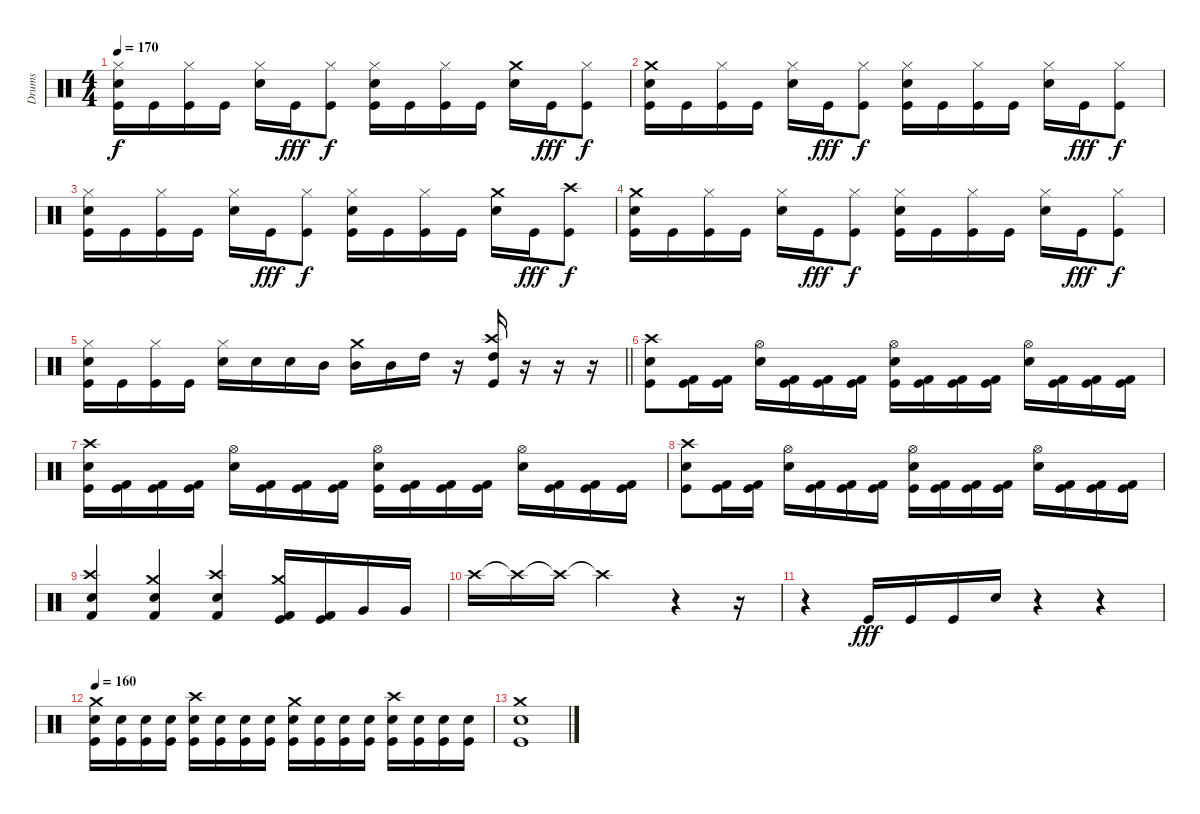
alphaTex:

\track ("Drums" "Drums") {instrument percussion}
\staff {score}
\articulation defaults
\ts (4 4)
\tempo 170
\clef neutral
\ks c
("Hi-Hat (closed)" "Snare (hit) 2" "Kick (hit)").16{dy f} "Kick (hit)".16 ("Hi-Hat (closed)" "Kick (hit)").16 "Kick (hit)".16 ("Hi-Hat (closed)" "Snare (hit) 2").16 "Kick (hit)".16{dy fff} ("Hi-Hat (closed)" "Kick (hit)").8{dy f} ("Hi-Hat (closed)" "Snare (hit) 2" "Kick (hit)").16 "Kick (hit)".16 ("Hi-Hat (closed)" "Kick (hit)").16 "Kick (hit)".16 ("Crash medium (hit)" "Snare (hit) 2").16 "Kick (hit)".16{dy fff} ("Hi-Hat (closed)" "Kick (hit)").8{dy f} |
("Crash medium (hit)" "Snare (hit) 2" "Kick (hit)").16 "Kick (hit)".16 ("Hi-Hat (closed)" "Kick (hit)").16 "Kick (hit)".16 ("Hi-Hat (closed)" "Snare (hit) 2").16 "Kick (hit)".16{dy fff} ("Hi-Hat (closed)" "Kick (hit)").8{dy f} ("Hi-Hat (closed)" "Snare (hit) 2" "Kick (hit)").16 "Kick (hit)".16 ("Hi-Hat (closed)" "Kick (hit)").16 "Kick (hit)".16 ("Hi-Hat (closed)" "Snare (hit) 2").16 "Kick (hit)".16{dy fff} ("Hi-Hat (closed)" "Kick (hit)").8{dy f} |
("Hi-Hat (closed)" "Snare (hit) 2" "Kick (hit)").16 "Kick (hit)".16 ("Hi-Hat (closed)" "Kick (hit)").16 "Kick (hit)".16 ("Hi-Hat (closed)" "Snare (hit) 2").16 "Kick (hit)".16{dy fff} ("Hi-Hat (closed)" "Kick (hit)").8{dy f} ("Hi-Hat (closed)" "Snare (hit) 2" "Kick (hit)").16 "Kick (hit)".16 ("Hi-Hat (closed)" "Kick (hit)").16 "Kick (hit)".16 ("Crash medium (hit)" "Snare (hit) 2").16 "Kick (hit)".16{dy fff} ("Crash high (hit)" "Kick (hit)").8{dy f} |
("Crash medium (hit)" "Snare (hit) 2" "Kick (hit)").16 "Kick (hit)".16 ("Hi-Hat (closed)" "Kick (hit)").16 "Kick (hit)".16 ("Hi-Hat (closed)" "Snare (hit) 2").16 "Kick (hit)".16{dy fff} ("Hi-Hat (closed)" "Kick (hit)").8{dy f} ("Hi-Hat (closed)" "Snare (hit) 2" "Kick (hit)").16 "Kick (hit)".16 ("Hi-Hat (closed)" "Kick (hit)").16 "Kick (hit)".16 ("Hi-Hat (closed)" "Snare (hit) 2").16 "Kick (hit)".16{dy fff} ("Hi-Hat (closed)" "Kick (hit)").8{dy f} |
\barLineRight lightlight
("Hi-Hat (closed)" "Snare (hit) 2" "Kick (hit)").16 "Kick (hit)".16 ("Hi-Hat (closed)" "Kick (hit)").16 "Kick (hit)".16 ("Hi-Hat (closed)" "Snare (hit) 2").16 "Snare (hit) 2".16 "Snare (hit) 2".16 "Mid Tom (hit)".16 ("Crash medium (hit)" "Mid Tom (hit)").16 "Mid Tom (hit)".16 "High Tom (hit)".16 r.16 ("Crash high (hit)" "High Tom (hit)" "Kick (hit)").16 r.16 r.16 r.16 |
("Crash high (hit)" "Snare (hit) 2" "Kick (hit)").8 ("Kick (hit) 2" "Kick (hit)").16 ("Kick (hit) 2" "Kick (hit)").16 ("Hi-Hat (open)" "Snare (hit) 2").16 ("Kick (hit) 2" "Kick (hit)").16 ("Kick (hit) 2" "Kick (hit)").16 ("Kick (hit) 2" "Kick (hit)").16 ("Hi-Hat (open)" "Snare (hit) 2" "Kick (hit)").16 ("Kick (hit) 2" "Kick (hit)").16 ("Kick (hit) 2" "Kick (hit)").16 ("Kick (hit) 2" "Kick (hit)").16 ("Hi-Hat (open)" "Snare (hit) 2").16 ("Kick (hit) 2" "Kick (hit)").16 ("Kick (hit) 2" "Kick (hit)").16 ("Kick (hit) 2" "Kick (hit)").16 |
("Crash high (hit)" "Snare (hit) 2" "Kick (hit)").16 ("Kick (hit) 2" "Kick (hit)").16 ("Kick (hit) 2" "Kick (hit)").16 ("Kick (hit) 2" "Kick (hit)").16 ("Hi-Hat (open)" "Snare (hit) 2").16 ("Kick (hit) 2" "Kick (hit)").16 ("Kick (hit) 2" "Kick (hit)").16 ("Kick (hit) 2" "Kick (hit)").16 ("Hi-Hat (open)" "Snare (hit) 2" "Kick (hit)").16 ("Kick (hit) 2" "Kick (hit)").16 ("Kick (hit) 2" "Kick (hit)").16 ("Kick (hit) 2" "Kick (hit)").16 ("Hi-Hat (open)" "Snare (hit) 2").16 ("Kick (hit) 2" "Kick (hit)").16 ("Kick (hit) 2" "Kick (hit)").16 ("Kick (hit) 2" "Kick (hit)").16 |
("Crash high (hit)" "Snare (hit) 2" "Kick (hit)").8 ("Kick (hit) 2" "Kick (hit)").16 ("Kick (hit) 2" "Kick (hit)").16 ("Hi-Hat (open)" "Snare (hit) 2").16 ("Kick (hit) 2" "Kick (hit)").16 ("Kick (hit) 2" "Kick (hit)").16 ("Kick (hit) 2" "Kick (hit)").16 ("Hi-Hat (open)" "Snare (hit) 2" "Kick (hit)").16 ("Kick (hit) 2" "Kick (hit)").16 ("Kick (hit) 2" "Kick (hit)").16 ("Kick (hit) 2" "Kick (hit)").16 ("Hi-Hat (open)" "Snare (hit) 2").16 ("Kick (hit) 2" "Kick (hit)").16 ("Kick (hit) 2" "Kick (hit)").16 ("Kick (hit) 2" "Kick (hit)").16 |
("Crash high (hit)" "Snare (hit) 2" "Kick (hit) 2").4 ("Crash medium (hit)" "Snare (hit) 2" "Kick (hit) 2").4 ("Crash high (hit)" "Snare (hit) 2" "Kick (hit) 2").4 ("Crash medium (hit)" "Kick (hit)" "Kick (hit) 2").16 ("Kick (hit)" "Kick (hit) 2").16 "Very Low Tom (hit)".16 "Very Low Tom (hit)".16 |
"Crash high (hit)".16 "Crash high (hit)"{t}.16 "Crash high (hit)"{t}.16 "Crash high (hit)"{t}.2 r.4 r.16 |
r.4 "Kick (hit)".16{dy fff} "Kick (hit)".16 "Kick (hit)".16 "Snare (hit) 2".16 r.4 r.4 |
\tempo 160
("Crash medium (hit)" "Snare (hit) 2" "Kick (hit)").16 ("Snare (hit) 2" "Kick (hit)").16 ("Snare (hit) 2" "Kick (hit)").16 ("Snare (hit) 2" "Kick (hit)").16 ("Crash high (hit)" "Snare (hit) 2" "Kick (hit)").16 ("Snare (hit) 2" "Kick (hit)").16 ("Snare (hit) 2" "Kick (hit)").16 ("Snare (hit) 2" "Kick (hit)").16 ("Crash medium (hit)" "Snare (hit) 2" "Kick (hit)").16 ("Snare (hit) 2" "Kick (hit)").16 ("Snare (hit) 2" "Kick (hit)").16 ("Snare (hit) 2" "Kick (hit)").16 ("Crash high (hit)" "Snare (hit) 2" "Kick (hit)").16 ("Snare (hit) 2" "Kick (hit)").16 ("Snare (hit) 2" "Kick (hit)").16 ("Snare (hit) 2" "Kick (hit)").16 |
("Crash medium (hit)" "Snare (hit) 2" "Kick (hit)").1
